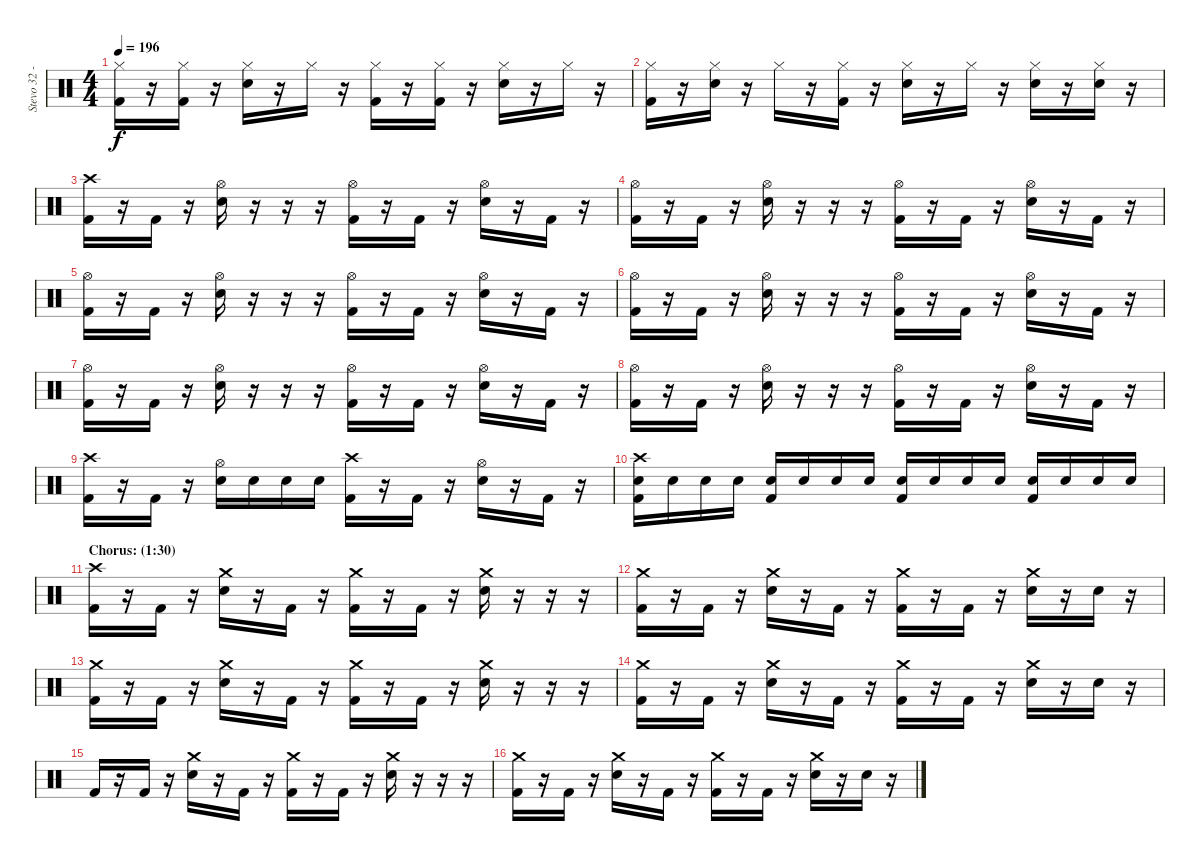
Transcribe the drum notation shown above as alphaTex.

\track ("Stevo 32 - Drums" "Stevo 32 -") {instrument percussion}
\staff {score}
\articulation defaults
\ts (4 4)
\tempo 196
\clef neutral
\ks c
("Hi-Hat (closed)" "Kick (hit) 2").16{dy f} r.16 ("Hi-Hat (closed)" "Kick (hit) 2").16 r.16 ("Hi-Hat (closed)" "Snare (hit) 2").16 r.16 "Hi-Hat (closed)".16 r.16 ("Hi-Hat (closed)" "Kick (hit) 2").16 r.16 ("Hi-Hat (closed)" "Kick (hit) 2").16 r.16 ("Hi-Hat (closed)" "Snare (hit) 2").16 r.16 "Hi-Hat (closed)".16 r.16 |
("Hi-Hat (closed)" "Kick (hit) 2").16 r.16 ("Hi-Hat (closed)" "Snare (hit) 2").16 r.16 "Hi-Hat (closed)".16 r.16 ("Hi-Hat (closed)" "Kick (hit) 2").16 r.16 ("Hi-Hat (closed)" "Snare (hit) 2").16 r.16 "Hi-Hat (closed)".16 r.16 ("Hi-Hat (closed)" "Snare (hit) 2").16 r.16 ("Hi-Hat (closed)" "Snare (hit) 2").16 r.16 |
("Crash high (hit)" "Kick (hit) 2").16 r.16 "Kick (hit) 2".16 r.16 ("Hi-Hat (open)" "Snare (hit) 2").16 r.16 r.16 r.16 ("Hi-Hat (open)" "Kick (hit) 2").16 r.16 "Kick (hit) 2".16 r.16 ("Hi-Hat (open)" "Snare (hit) 2").16 r.16 "Kick (hit) 2".16 r.16 |
("Hi-Hat (open)" "Kick (hit) 2").16 r.16 "Kick (hit) 2".16 r.16 ("Hi-Hat (open)" "Snare (hit) 2").16 r.16 r.16 r.16 ("Hi-Hat (open)" "Kick (hit) 2").16 r.16 "Kick (hit) 2".16 r.16 ("Hi-Hat (open)" "Snare (hit) 2").16 r.16 "Kick (hit) 2".16 r.16 |
("Hi-Hat (open)" "Kick (hit) 2").16 r.16 "Kick (hit) 2".16 r.16 ("Hi-Hat (open)" "Snare (hit) 2").16 r.16 r.16 r.16 ("Hi-Hat (open)" "Kick (hit) 2").16 r.16 "Kick (hit) 2".16 r.16 ("Hi-Hat (open)" "Snare (hit) 2").16 r.16 "Kick (hit) 2".16 r.16 |
("Hi-Hat (open)" "Kick (hit) 2").16 r.16 "Kick (hit) 2".16 r.16 ("Hi-Hat (open)" "Snare (hit) 2").16 r.16 r.16 r.16 ("Hi-Hat (open)" "Kick (hit) 2").16 r.16 "Kick (hit) 2".16 r.16 ("Hi-Hat (open)" "Snare (hit) 2").16 r.16 "Kick (hit) 2".16 r.16 |
("Hi-Hat (open)" "Kick (hit) 2").16 r.16 "Kick (hit) 2".16 r.16 ("Hi-Hat (open)" "Snare (hit) 2").16 r.16 r.16 r.16 ("Hi-Hat (open)" "Kick (hit) 2").16 r.16 "Kick (hit) 2".16 r.16 ("Hi-Hat (open)" "Snare (hit) 2").16 r.16 "Kick (hit) 2".16 r.16 |
("Hi-Hat (open)" "Kick (hit) 2").16 r.16 "Kick (hit) 2".16 r.16 ("Hi-Hat (open)" "Snare (hit) 2").16 r.16 r.16 r.16 ("Hi-Hat (open)" "Kick (hit) 2").16 r.16 "Kick (hit) 2".16 r.16 ("Hi-Hat (open)" "Snare (hit) 2").16 r.16 "Kick (hit) 2".16 r.16 |
("Crash high (hit)" "Kick (hit) 2").16 r.16 "Kick (hit) 2".16 r.16 ("Hi-Hat (open)" "Snare (hit) 2").16 "Snare (hit) 2".16 "Snare (hit) 2".16 "Snare (hit) 2".16 ("Crash high (hit)" "Kick (hit) 2").16 r.16 "Kick (hit) 2".16 r.16 ("Hi-Hat (open)" "Snare (hit) 2").16 r.16 "Kick (hit) 2".16 r.16 |
("Crash high (hit)" "Snare (hit) 2" "Kick (hit) 2").16 "Snare (hit) 2".16 "Snare (hit) 2".16 "Snare (hit) 2".16 ("Snare (hit) 2" "Kick (hit) 2").16 "Snare (hit) 2".16 "Snare (hit) 2".16 "Snare (hit) 2".16 ("Snare (hit) 2" "Kick (hit) 2").16 "Snare (hit) 2".16 "Snare (hit) 2".16 "Snare (hit) 2".16 ("Snare (hit) 2" "Kick (hit) 2").16 "Snare (hit) 2".16 "Snare (hit) 2".16 "Snare (hit) 2".16 |
\section ("" "Chorus: (1:30)")
("Crash high (hit)" "Kick (hit) 2").16 r.16 "Kick (hit) 2".16 r.16 ("Crash medium (hit)" "Snare (hit) 2").16 r.16 "Kick (hit) 2".16 r.16 ("Crash medium (hit)" "Kick (hit) 2").16 r.16 "Kick (hit) 2".16 r.16 ("Crash medium (hit)" "Snare (hit) 2").16 r.16 r.16 r.16 |
("Crash medium (hit)" "Kick (hit) 2").16 r.16 "Kick (hit) 2".16 r.16 ("Crash medium (hit)" "Snare (hit) 2").16 r.16 "Kick (hit) 2".16 r.16 ("Crash medium (hit)" "Kick (hit) 2").16 r.16 "Kick (hit) 2".16 r.16 ("Crash medium (hit)" "Snare (hit) 2").16 r.16 "Snare (hit) 2".16 r.16 |
("Crash medium (hit)" "Kick (hit) 2").16 r.16 "Kick (hit) 2".16 r.16 ("Crash medium (hit)" "Snare (hit) 2").16 r.16 "Kick (hit) 2".16 r.16 ("Crash medium (hit)" "Kick (hit) 2").16 r.16 "Kick (hit) 2".16 r.16 ("Crash medium (hit)" "Snare (hit) 2").16 r.16 r.16 r.16 |
("Crash medium (hit)" "Kick (hit) 2").16 r.16 "Kick (hit) 2".16 r.16 ("Crash medium (hit)" "Snare (hit) 2").16 r.16 "Kick (hit) 2".16 r.16 ("Crash medium (hit)" "Kick (hit) 2").16 r.16 "Kick (hit) 2".16 r.16 ("Crash medium (hit)" "Snare (hit) 2").16 r.16 "Snare (hit) 2".16 r.16 |
"Kick (hit) 2".16 r.16 "Kick (hit) 2".16 r.16 ("Crash medium (hit)" "Snare (hit) 2").16 r.16 "Kick (hit) 2".16 r.16 ("Crash medium (hit)" "Kick (hit) 2").16 r.16 "Kick (hit) 2".16 r.16 ("Crash medium (hit)" "Snare (hit) 2").16 r.16 r.16 r.16 |
("Crash medium (hit)" "Kick (hit) 2").16 r.16 "Kick (hit) 2".16 r.16 ("Crash medium (hit)" "Snare (hit) 2").16 r.16 "Kick (hit) 2".16 r.16 ("Crash medium (hit)" "Kick (hit) 2").16 r.16 "Kick (hit) 2".16 r.16 ("Crash medium (hit)" "Snare (hit) 2").16 r.16 "Snare (hit) 2".16 r.16
